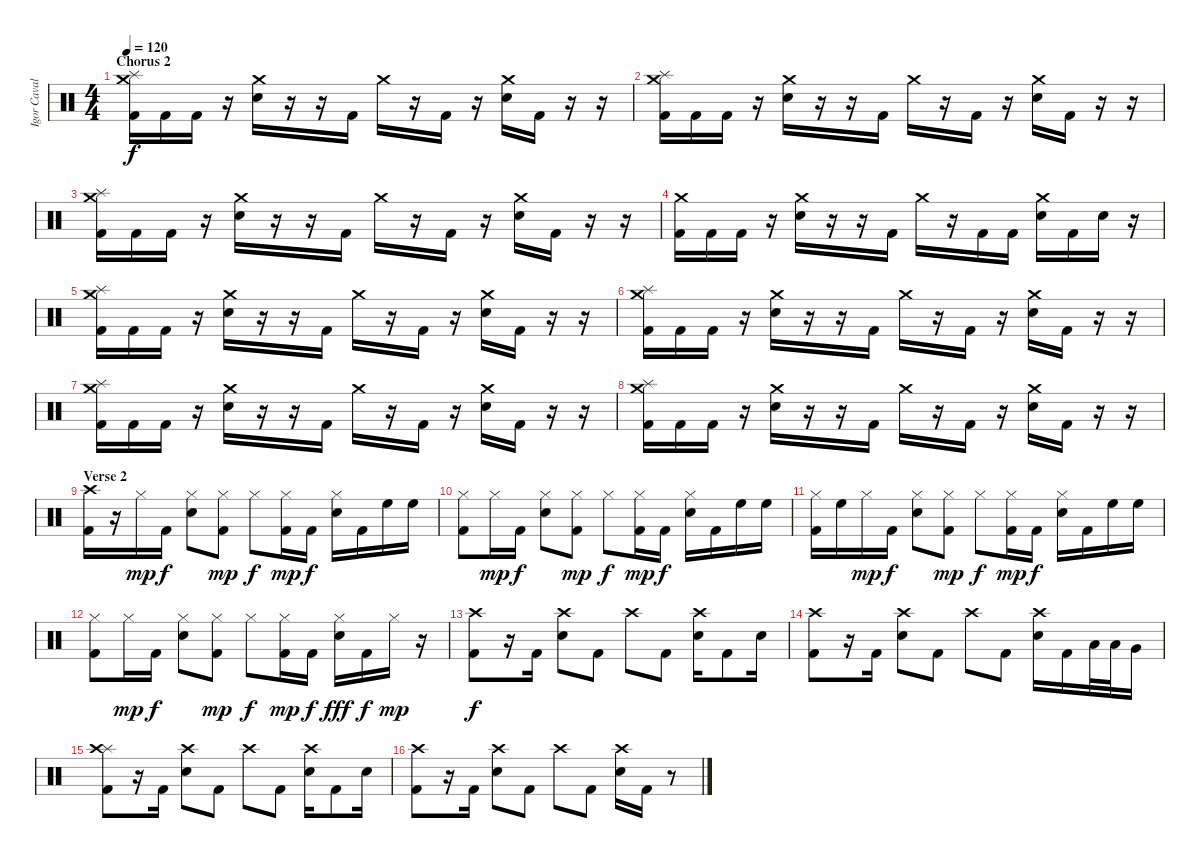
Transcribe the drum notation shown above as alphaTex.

\track ("Igor Cavalera" "Igor Caval") {instrument percussion}
\staff {score}
\articulation defaults
\ts (4 4)
\section ("" "Chorus 2")
\tempo 120
\clef neutral
\ks c
("Splash (hit)" "Kick (hit) 2" "Crash medium (hit)").16{dy f} "Kick (hit) 2".16 "Kick (hit) 2".16 r.16 ("Crash medium (hit)" "Electric Snare (hit)").16 r.16 r.16 "Kick (hit) 2".16 "Crash medium (hit)".16 r.16 "Kick (hit) 2".16 r.16 ("Crash medium (hit)" "Electric Snare (hit)").16 "Kick (hit) 2".16 r.16 r.16 |
("Splash (hit)" "Kick (hit) 2" "Crash medium (hit)").16 "Kick (hit) 2".16 "Kick (hit) 2".16 r.16 ("Crash medium (hit)" "Electric Snare (hit)").16 r.16 r.16 "Kick (hit) 2".16 "Crash medium (hit)".16 r.16 "Kick (hit) 2".16 r.16 ("Crash medium (hit)" "Electric Snare (hit)").16 "Kick (hit) 2".16 r.16 r.16 |
("Splash (hit)" "Kick (hit) 2" "Crash medium (hit)").16 "Kick (hit) 2".16 "Kick (hit) 2".16 r.16 ("Crash medium (hit)" "Electric Snare (hit)").16 r.16 r.16 "Kick (hit) 2".16 "Crash medium (hit)".16 r.16 "Kick (hit) 2".16 r.16 ("Crash medium (hit)" "Electric Snare (hit)").16 "Kick (hit) 2".16 r.16 r.16 |
("Kick (hit) 2" "Crash medium (hit)").16 "Kick (hit) 2".16 "Kick (hit) 2".16 r.16 ("Crash medium (hit)" "Electric Snare (hit)").16 r.16 r.16 "Kick (hit) 2".16 "Crash medium (hit)".16 r.16 "Kick (hit) 2".16 "Kick (hit) 2".16 ("Crash medium (hit)" "Electric Snare (hit)").16 "Kick (hit) 2".16 "Electric Snare (hit)".16 r.16 |
("Splash (hit)" "Kick (hit) 2" "Crash medium (hit)").16 "Kick (hit) 2".16 "Kick (hit) 2".16 r.16 ("Crash medium (hit)" "Electric Snare (hit)").16 r.16 r.16 "Kick (hit) 2".16 "Crash medium (hit)".16 r.16 "Kick (hit) 2".16 r.16 ("Crash medium (hit)" "Electric Snare (hit)").16 "Kick (hit) 2".16 r.16 r.16 |
("Splash (hit)" "Kick (hit) 2" "Crash medium (hit)").16 "Kick (hit) 2".16 "Kick (hit) 2".16 r.16 ("Crash medium (hit)" "Electric Snare (hit)").16 r.16 r.16 "Kick (hit) 2".16 "Crash medium (hit)".16 r.16 "Kick (hit) 2".16 r.16 ("Crash medium (hit)" "Electric Snare (hit)").16 "Kick (hit) 2".16 r.16 r.16 |
("Splash (hit)" "Kick (hit) 2" "Crash medium (hit)").16 "Kick (hit) 2".16 "Kick (hit) 2".16 r.16 ("Crash medium (hit)" "Electric Snare (hit)").16 r.16 r.16 "Kick (hit) 2".16 "Crash medium (hit)".16 r.16 "Kick (hit) 2".16 r.16 ("Crash medium (hit)" "Electric Snare (hit)").16 "Kick (hit) 2".16 r.16 r.16 |
("Splash (hit)" "Kick (hit) 2" "Crash medium (hit)").16 "Kick (hit) 2".16 "Kick (hit) 2".16 r.16 ("Crash medium (hit)" "Electric Snare (hit)").16 r.16 r.16 "Kick (hit) 2".16 "Crash medium (hit)".16 r.16 "Kick (hit) 2".16 r.16 ("Crash medium (hit)" "Electric Snare (hit)").16 "Kick (hit) 2".16 r.16 r.16 |
\section ("" "Verse 2")
("Crash high (hit)" "Kick (hit) 2").16 r.16 "Hi-Hat (closed)".16{dy mp} "Kick (hit) 2".16{dy f} ("Hi-Hat (closed)" "Electric Snare (hit)").8 ("Hi-Hat (closed)" "Kick (hit) 2").8{dy mp} "Hi-Hat (closed)".8{dy f} ("Hi-Hat (closed)" "Kick (hit) 2").16{dy mp} "Kick (hit) 2".16{dy f} ("Hi-Hat (closed)" "Electric Snare (hit)").16 "Kick (hit) 2".16 "High Floor Tom (hit)".16 "High Floor Tom (hit)".16 |
("Hi-Hat (closed)" "Kick (hit) 2").8 "Hi-Hat (closed)".16{dy mp} "Kick (hit) 2".16{dy f} ("Hi-Hat (closed)" "Electric Snare (hit)").8 ("Hi-Hat (closed)" "Kick (hit) 2").8{dy mp} "Hi-Hat (closed)".8{dy f} ("Hi-Hat (closed)" "Kick (hit) 2").16{dy mp} "Kick (hit) 2".16{dy f} ("Hi-Hat (closed)" "Electric Snare (hit)").16 "Kick (hit) 2".16 "High Floor Tom (hit)".16 "High Floor Tom (hit)".16 |
("Hi-Hat (closed)" "Kick (hit) 2").16 "High Floor Tom (hit)".16 "Hi-Hat (closed)".16{dy mp} "Kick (hit) 2".16{dy f} ("Hi-Hat (closed)" "Electric Snare (hit)").8 ("Hi-Hat (closed)" "Kick (hit) 2").8{dy mp} "Hi-Hat (closed)".8{dy f} ("Hi-Hat (closed)" "Kick (hit) 2").16{dy mp} "Kick (hit) 2".16{dy f} ("Hi-Hat (closed)" "Electric Snare (hit)").16 "Kick (hit) 2".16 "High Floor Tom (hit)".16 "High Floor Tom (hit)".16 |
("Hi-Hat (closed)" "Kick (hit) 2").8 "Hi-Hat (closed)".16{dy mp} "Kick (hit) 2".16{dy f} ("Hi-Hat (closed)" "Electric Snare (hit)").8 ("Hi-Hat (closed)" "Kick (hit) 2").8{dy mp} "Hi-Hat (closed)".8{dy f} ("Hi-Hat (closed)" "Kick (hit) 2").16{dy mp} "Kick (hit) 2".16{dy f} ("Hi-Hat (closed)" "Electric Snare (hit)").16{dy fff} "Kick (hit) 2".16{dy f} "Hi-Hat (closed)".16{dy mp} r.16 |
("Crash high (hit)" "Kick (hit) 2").8{dy f} r.16 "Kick (hit) 2".16 ("Crash high (hit)" "Electric Snare (hit)").8 "Kick (hit) 2".8 "Crash high (hit)".8 "Kick (hit) 2".8 ("Crash high (hit)" "Electric Snare (hit)").16 "Kick (hit) 2".8 "Electric Snare (hit)".16 |
("Crash high (hit)" "Kick (hit) 2").8 r.16 "Kick (hit) 2".16 ("Crash high (hit)" "Electric Snare (hit)").8 "Kick (hit) 2".8 "Crash high (hit)".8 "Kick (hit) 2".8 ("Crash high (hit)" "Electric Snare (hit)").16 "Kick (hit) 2".16 "Low Tom (hit)".32 "Low Tom (hit)".32 "Very Low Tom (hit)".16 |
("Splash (hit)" "Crash high (hit)" "Kick (hit) 2").8 r.16 "Kick (hit) 2".16 ("Crash high (hit)" "Electric Snare (hit)").8 "Kick (hit) 2".8 "Crash high (hit)".8 "Kick (hit) 2".8 ("Crash high (hit)" "Electric Snare (hit)").16 "Kick (hit) 2".8 "Electric Snare (hit)".16 |
("Crash high (hit)" "Kick (hit) 2").8 r.16 "Kick (hit) 2".16 ("Crash high (hit)" "Electric Snare (hit)").8 "Kick (hit) 2".8 "Crash high (hit)".8 "Kick (hit) 2".8 ("Crash high (hit)" "Electric Snare (hit)").16 "Kick (hit) 2".16 r.8
